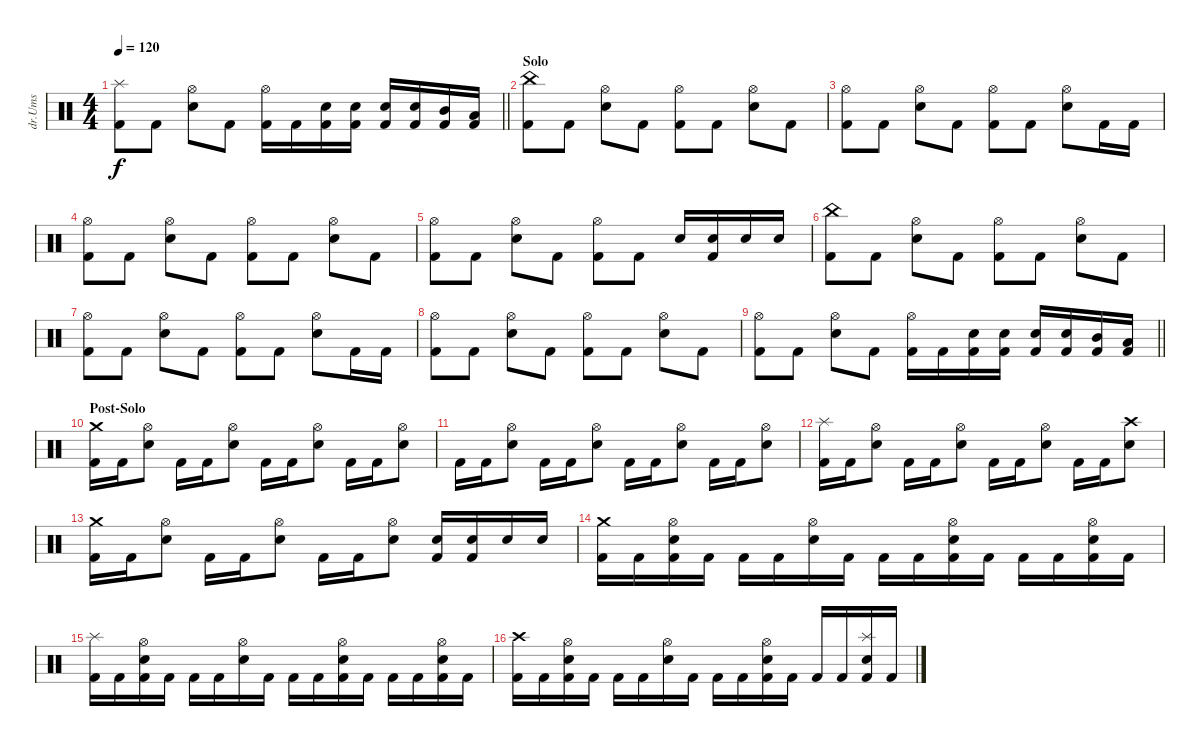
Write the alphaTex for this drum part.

\track ("dr.Ums" "dr.Ums") {instrument percussion}
\staff {score}
\articulation defaults
\ts (4 4)
\tempo 120
\clef neutral
\barLineRight lightlight
\ks c
("Kick (hit) 2" "Splash (hit)").8{dy f} "Kick (hit) 2".8 ("Snare (hit) 2" "Hi-Hat (open)").8 "Kick (hit) 2".8 ("Kick (hit) 2" "Hi-Hat (open)").16 "Kick (hit) 2".16 ("Snare (hit) 2" "Kick (hit) 2").16 ("Snare (hit) 2" "Kick (hit) 2").16 ("Snare (hit) 2" "Kick (hit) 2").16 ("Snare (hit) 2" "Kick (hit) 2").16 ("Mid Tom (hit)" "Kick (hit) 2").16 ("Low Tom (hit)" "Kick (hit) 2").16 |
\section ("" "Solo")
("China (hit)" "Kick (hit) 2").8 "Kick (hit) 2".8 ("Hi-Hat (open)" "Snare (hit) 2").8 "Kick (hit) 2".8 ("Hi-Hat (open)" "Kick (hit) 2").8 "Kick (hit) 2".8 ("Hi-Hat (open)" "Snare (hit) 2").8 "Kick (hit) 2".8 |
("Hi-Hat (open)" "Kick (hit) 2").8 "Kick (hit) 2".8 ("Hi-Hat (open)" "Snare (hit) 2").8 "Kick (hit) 2".8 ("Hi-Hat (open)" "Kick (hit) 2").8 "Kick (hit) 2".8 ("Hi-Hat (open)" "Snare (hit) 2").8 "Kick (hit) 2".16 "Kick (hit) 2".16 |
("Hi-Hat (open)" "Kick (hit) 2").8 "Kick (hit) 2".8 ("Hi-Hat (open)" "Snare (hit) 2").8 "Kick (hit) 2".8 ("Hi-Hat (open)" "Kick (hit) 2").8 "Kick (hit) 2".8 ("Hi-Hat (open)" "Snare (hit) 2").8 "Kick (hit) 2".8 |
("Hi-Hat (open)" "Kick (hit) 2").8 "Kick (hit) 2".8 ("Hi-Hat (open)" "Snare (hit) 2").8 "Kick (hit) 2".8 ("Hi-Hat (open)" "Kick (hit) 2").8 "Kick (hit) 2".8 "Snare (hit) 2".16 ("Snare (hit) 2" "Kick (hit) 2").16 "Snare (hit) 2".16 "Snare (hit) 2".16 |
("China (hit)" "Kick (hit) 2").8 "Kick (hit) 2".8 ("Hi-Hat (open)" "Snare (hit) 2").8 "Kick (hit) 2".8 ("Hi-Hat (open)" "Kick (hit) 2").8 "Kick (hit) 2".8 ("Hi-Hat (open)" "Snare (hit) 2").8 "Kick (hit) 2".8 |
("Hi-Hat (open)" "Kick (hit) 2").8 "Kick (hit) 2".8 ("Hi-Hat (open)" "Snare (hit) 2").8 "Kick (hit) 2".8 ("Hi-Hat (open)" "Kick (hit) 2").8 "Kick (hit) 2".8 ("Hi-Hat (open)" "Snare (hit) 2").8 "Kick (hit) 2".16 "Kick (hit) 2".16 |
("Hi-Hat (open)" "Kick (hit) 2").8 "Kick (hit) 2".8 ("Hi-Hat (open)" "Snare (hit) 2").8 "Kick (hit) 2".8 ("Hi-Hat (open)" "Kick (hit) 2").8 "Kick (hit) 2".8 ("Hi-Hat (open)" "Snare (hit) 2").8 "Kick (hit) 2".8 |
\barLineRight lightlight
("Hi-Hat (open)" "Kick (hit) 2").8 "Kick (hit) 2".8 ("Hi-Hat (open)" "Snare (hit) 2").8 "Kick (hit) 2".8 ("Kick (hit) 2" "Hi-Hat (open)").16 "Kick (hit) 2".16 ("Snare (hit) 2" "Kick (hit) 2").16 ("Snare (hit) 2" "Kick (hit) 2").16 ("Snare (hit) 2" "Kick (hit) 2").16 ("Snare (hit) 2" "Kick (hit) 2").16 ("Mid Tom (hit)" "Kick (hit) 2").16 ("Low Tom (hit)" "Kick (hit) 2").16 |
\section ("" "Post-Solo")
("Crash medium (hit)" "Kick (hit) 2").16 "Kick (hit) 2".16 ("Hi-Hat (open)" "Snare (hit) 2").8 "Kick (hit) 2".16 "Kick (hit) 2".16 ("Hi-Hat (open)" "Snare (hit) 2").8 "Kick (hit) 2".16 "Kick (hit) 2".16 ("Hi-Hat (open)" "Snare (hit) 2").8 "Kick (hit) 2".16 "Kick (hit) 2".16 ("Hi-Hat (open)" "Snare (hit) 2").8 |
"Kick (hit) 2".16 "Kick (hit) 2".16 ("Hi-Hat (open)" "Snare (hit) 2").8 "Kick (hit) 2".16 "Kick (hit) 2".16 ("Hi-Hat (open)" "Snare (hit) 2").8 "Kick (hit) 2".16 "Kick (hit) 2".16 ("Hi-Hat (open)" "Snare (hit) 2").8 "Kick (hit) 2".16 "Kick (hit) 2".16 ("Hi-Hat (open)" "Snare (hit) 2").8 |
("Splash (hit)" "Kick (hit) 2").16 "Kick (hit) 2".16 ("Hi-Hat (open)" "Snare (hit) 2").8 "Kick (hit) 2".16 "Kick (hit) 2".16 ("Hi-Hat (open)" "Snare (hit) 2").8 "Kick (hit) 2".16 "Kick (hit) 2".16 ("Hi-Hat (open)" "Snare (hit) 2").8 "Kick (hit) 2".16 "Kick (hit) 2".16 ("Crash high (hit)" "Snare (hit) 2").8 |
("Crash medium (hit)" "Kick (hit) 2").16 "Kick (hit) 2".16 ("Hi-Hat (open)" "Snare (hit) 2").8 "Kick (hit) 2".16 "Kick (hit) 2".16 ("Hi-Hat (open)" "Snare (hit) 2").8 "Kick (hit) 2".16 "Kick (hit) 2".16 ("Hi-Hat (open)" "Snare (hit) 2").8 ("Snare (hit) 2" "Kick (hit) 2").16 ("Snare (hit) 2" "Kick (hit) 2").16 "Snare (hit) 2".16 "Snare (hit) 2".16 |
("Crash medium (hit)" "Kick (hit) 2").16 "Kick (hit) 2".16 ("Hi-Hat (open)" "Snare (hit) 2" "Kick (hit) 2").16 "Kick (hit) 2".16 "Kick (hit) 2".16 "Kick (hit) 2".16 ("Hi-Hat (open)" "Snare (hit) 2").16 "Kick (hit) 2".16 "Kick (hit) 2".16 "Kick (hit) 2".16 ("Hi-Hat (open)" "Snare (hit) 2" "Kick (hit) 2").16 "Kick (hit) 2".16 "Kick (hit) 2".16 "Kick (hit) 2".16 ("Kick (hit) 2" "Snare (hit) 2" "Hi-Hat (open)").16 "Kick (hit) 2".16 |
("Splash (hit)" "Kick (hit) 2").16 "Kick (hit) 2".16 ("Hi-Hat (open)" "Snare (hit) 2" "Kick (hit) 2").16 "Kick (hit) 2".16 "Kick (hit) 2".16 "Kick (hit) 2".16 ("Hi-Hat (open)" "Snare (hit) 2").16 "Kick (hit) 2".16 "Kick (hit) 2".16 "Kick (hit) 2".16 ("Hi-Hat (open)" "Snare (hit) 2" "Kick (hit) 2").16 "Kick (hit) 2".16 "Kick (hit) 2".16 "Kick (hit) 2".16 ("Kick (hit) 2" "Snare (hit) 2" "Hi-Hat (open)").16 "Kick (hit) 2".16 |
("Crash high (hit)" "Kick (hit) 2").16 "Kick (hit) 2".16 ("Hi-Hat (open)" "Snare (hit) 2" "Kick (hit) 2").16 "Kick (hit) 2".16 "Kick (hit) 2".16 "Kick (hit) 2".16 ("Hi-Hat (open)" "Snare (hit) 2").16 "Kick (hit) 2".16 "Kick (hit) 2".16 "Kick (hit) 2".16 ("Hi-Hat (open)" "Snare (hit) 2" "Kick (hit) 2").16 "Kick (hit) 2".16 "Kick (hit) 2".16 "Kick (hit) 2".16 ("Kick (hit) 2" "Snare (hit) 2" "Splash (hit)").16 "Kick (hit) 2".16
